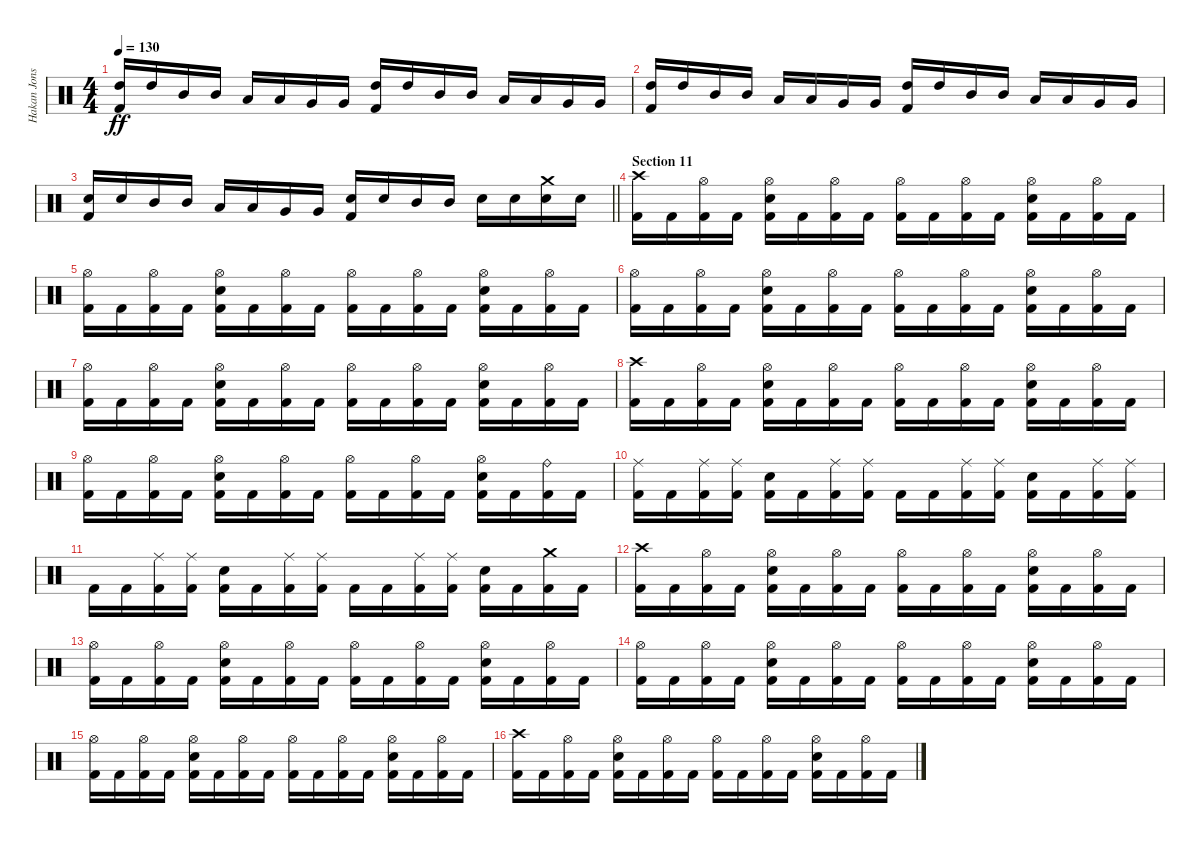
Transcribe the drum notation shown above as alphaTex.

\track ("Hakan Jonsson" "Hakan Jons") {instrument percussion}
\staff {score}
\articulation defaults
\ts (4 4)
\tempo 130
\clef neutral
\ks c
("High Tom (hit)" "Kick (hit) 2").16{dy ff} "High Tom (hit)".16 "Mid Tom (hit)".16 "Mid Tom (hit)".16 "Low Tom (hit)".16 "Low Tom (hit)".16 "Very Low Tom (hit)".16 "Very Low Tom (hit)".16 ("High Tom (hit)" "Kick (hit) 2").16 "High Tom (hit)".16 "Mid Tom (hit)".16 "Mid Tom (hit)".16 "Low Tom (hit)".16 "Low Tom (hit)".16 "Very Low Tom (hit)".16 "Very Low Tom (hit)".16 |
("High Tom (hit)" "Kick (hit) 2").16 "High Tom (hit)".16 "Mid Tom (hit)".16 "Mid Tom (hit)".16 "Low Tom (hit)".16 "Low Tom (hit)".16 "Very Low Tom (hit)".16 "Very Low Tom (hit)".16 ("High Tom (hit)" "Kick (hit) 2").16 "High Tom (hit)".16 "Mid Tom (hit)".16 "Mid Tom (hit)".16 "Low Tom (hit)".16 "Low Tom (hit)".16 "Very Low Tom (hit)".16 "Very Low Tom (hit)".16 |
\barLineRight lightlight
("Electric Snare (hit)" "Kick (hit) 2").16 "Electric Snare (hit)".16 "Mid Tom (hit)".16 "Mid Tom (hit)".16 "Low Tom (hit)".16 "Low Tom (hit)".16 "Very Low Tom (hit)".16 "Very Low Tom (hit)".16 ("Electric Snare (hit)" "Kick (hit) 2").16 "Electric Snare (hit)".16 "Mid Tom (hit)".16 "Mid Tom (hit)".16 "Electric Snare (hit)".16 "Electric Snare (hit)".16 ("Crash medium (hit)" "Electric Snare (hit)").16 "Electric Snare (hit)".16 |
\section ("" "Section 11")
("Crash high (hit)" "Kick (hit) 2").16 "Kick (hit) 2".16 ("Hi-Hat (open)" "Kick (hit) 2").16 "Kick (hit) 2".16 ("Hi-Hat (open)" "Electric Snare (hit)" "Kick (hit) 2").16 "Kick (hit) 2".16 ("Hi-Hat (open)" "Kick (hit) 2").16 "Kick (hit) 2".16 ("Hi-Hat (open)" "Kick (hit) 2").16 "Kick (hit) 2".16 ("Hi-Hat (open)" "Kick (hit) 2").16 "Kick (hit) 2".16 ("Hi-Hat (open)" "Electric Snare (hit)" "Kick (hit) 2").16 "Kick (hit) 2".16 ("Hi-Hat (open)" "Kick (hit) 2").16 "Kick (hit) 2".16 |
("Hi-Hat (open)" "Kick (hit) 2").16 "Kick (hit) 2".16 ("Hi-Hat (open)" "Kick (hit) 2").16 "Kick (hit) 2".16 ("Hi-Hat (open)" "Electric Snare (hit)" "Kick (hit) 2").16 "Kick (hit) 2".16 ("Hi-Hat (open)" "Kick (hit) 2").16 "Kick (hit) 2".16 ("Hi-Hat (open)" "Kick (hit) 2").16 "Kick (hit) 2".16 ("Hi-Hat (open)" "Kick (hit) 2").16 "Kick (hit) 2".16 ("Hi-Hat (open)" "Electric Snare (hit)" "Kick (hit) 2").16 "Kick (hit) 2".16 ("Hi-Hat (open)" "Kick (hit) 2").16 "Kick (hit) 2".16 |
("Hi-Hat (open)" "Kick (hit) 2").16 "Kick (hit) 2".16 ("Hi-Hat (open)" "Kick (hit) 2").16 "Kick (hit) 2".16 ("Hi-Hat (open)" "Electric Snare (hit)" "Kick (hit) 2").16 "Kick (hit) 2".16 ("Hi-Hat (open)" "Kick (hit) 2").16 "Kick (hit) 2".16 ("Hi-Hat (open)" "Kick (hit) 2").16 "Kick (hit) 2".16 ("Hi-Hat (open)" "Kick (hit) 2").16 "Kick (hit) 2".16 ("Hi-Hat (open)" "Electric Snare (hit)" "Kick (hit) 2").16 "Kick (hit) 2".16 ("Hi-Hat (open)" "Kick (hit) 2").16 "Kick (hit) 2".16 |
("Hi-Hat (open)" "Kick (hit) 2").16 "Kick (hit) 2".16 ("Hi-Hat (open)" "Kick (hit) 2").16 "Kick (hit) 2".16 ("Hi-Hat (open)" "Electric Snare (hit)" "Kick (hit) 2").16 "Kick (hit) 2".16 ("Hi-Hat (open)" "Kick (hit) 2").16 "Kick (hit) 2".16 ("Hi-Hat (open)" "Kick (hit) 2").16 "Kick (hit) 2".16 ("Hi-Hat (open)" "Kick (hit) 2").16 "Kick (hit) 2".16 ("Hi-Hat (open)" "Electric Snare (hit)" "Kick (hit) 2").16 "Kick (hit) 2".16 ("Hi-Hat (open)" "Kick (hit) 2").16 "Kick (hit) 2".16 |
("Crash high (hit)" "Kick (hit) 2").16 "Kick (hit) 2".16 ("Hi-Hat (open)" "Kick (hit) 2").16 "Kick (hit) 2".16 ("Hi-Hat (open)" "Electric Snare (hit)" "Kick (hit) 2").16 "Kick (hit) 2".16 ("Hi-Hat (open)" "Kick (hit) 2").16 "Kick (hit) 2".16 ("Hi-Hat (open)" "Kick (hit) 2").16 "Kick (hit) 2".16 ("Hi-Hat (open)" "Kick (hit) 2").16 "Kick (hit) 2".16 ("Hi-Hat (open)" "Electric Snare (hit)" "Kick (hit) 2").16 "Kick (hit) 2".16 ("Hi-Hat (open)" "Kick (hit) 2").16 "Kick (hit) 2".16 |
("Hi-Hat (open)" "Kick (hit) 2").16 "Kick (hit) 2".16 ("Hi-Hat (open)" "Kick (hit) 2").16 "Kick (hit) 2".16 ("Hi-Hat (open)" "Electric Snare (hit)" "Kick (hit) 2").16 "Kick (hit) 2".16 ("Hi-Hat (open)" "Kick (hit) 2").16 "Kick (hit) 2".16 ("Hi-Hat (open)" "Kick (hit) 2").16 "Kick (hit) 2".16 ("Hi-Hat (open)" "Kick (hit) 2").16 "Kick (hit) 2".16 ("Hi-Hat (open)" "Electric Snare (hit)" "Kick (hit) 2").16 "Kick (hit) 2".16 ("Ride (bell)" "Kick (hit) 2").16 "Kick (hit) 2".16 |
("Ride (middle)" "Kick (hit) 2").16 "Kick (hit) 2".16 ("Ride (middle)" "Kick (hit) 2").16 ("Ride (middle)" "Kick (hit) 2").16 ("Electric Snare (hit)" "Kick (hit) 2").16 "Kick (hit) 2".16 ("Ride (middle)" "Kick (hit) 2").16 ("Ride (middle)" "Kick (hit) 2").16 "Kick (hit) 2".16 "Kick (hit) 2".16 ("Ride (middle)" "Kick (hit) 2").16 ("Ride (middle)" "Kick (hit) 2").16 ("Electric Snare (hit)" "Kick (hit) 2").16 "Kick (hit) 2".16 ("Ride (middle)" "Kick (hit) 2").16 ("Ride (middle)" "Kick (hit) 2").16 |
"Kick (hit) 2".16 "Kick (hit) 2".16 ("Ride (middle)" "Kick (hit) 2").16 ("Ride (middle)" "Kick (hit) 2").16 ("Electric Snare (hit)" "Kick (hit) 2").16 "Kick (hit) 2".16 ("Ride (middle)" "Kick (hit) 2").16 ("Ride (middle)" "Kick (hit) 2").16 "Kick (hit) 2".16 "Kick (hit) 2".16 ("Ride (middle)" "Kick (hit) 2").16 ("Ride (middle)" "Kick (hit) 2").16 ("Electric Snare (hit)" "Kick (hit) 2").16 "Kick (hit) 2".16 ("Crash medium (hit)" "Kick (hit) 2").16 "Kick (hit) 2".16 |
("Crash high (hit)" "Kick (hit) 2").16 "Kick (hit) 2".16 ("Hi-Hat (open)" "Kick (hit) 2").16 "Kick (hit) 2".16 ("Hi-Hat (open)" "Electric Snare (hit)" "Kick (hit) 2").16 "Kick (hit) 2".16 ("Hi-Hat (open)" "Kick (hit) 2").16 "Kick (hit) 2".16 ("Hi-Hat (open)" "Kick (hit) 2").16 "Kick (hit) 2".16 ("Hi-Hat (open)" "Kick (hit) 2").16 "Kick (hit) 2".16 ("Hi-Hat (open)" "Electric Snare (hit)" "Kick (hit) 2").16 "Kick (hit) 2".16 ("Hi-Hat (open)" "Kick (hit) 2").16 "Kick (hit) 2".16 |
("Hi-Hat (open)" "Kick (hit) 2").16 "Kick (hit) 2".16 ("Hi-Hat (open)" "Kick (hit) 2").16 "Kick (hit) 2".16 ("Hi-Hat (open)" "Electric Snare (hit)" "Kick (hit) 2").16 "Kick (hit) 2".16 ("Hi-Hat (open)" "Kick (hit) 2").16 "Kick (hit) 2".16 ("Hi-Hat (open)" "Kick (hit) 2").16 "Kick (hit) 2".16 ("Hi-Hat (open)" "Kick (hit) 2").16 "Kick (hit) 2".16 ("Hi-Hat (open)" "Electric Snare (hit)" "Kick (hit) 2").16 "Kick (hit) 2".16 ("Hi-Hat (open)" "Kick (hit) 2").16 "Kick (hit) 2".16 |
("Hi-Hat (open)" "Kick (hit) 2").16 "Kick (hit) 2".16 ("Hi-Hat (open)" "Kick (hit) 2").16 "Kick (hit) 2".16 ("Hi-Hat (open)" "Electric Snare (hit)" "Kick (hit) 2").16 "Kick (hit) 2".16 ("Hi-Hat (open)" "Kick (hit) 2").16 "Kick (hit) 2".16 ("Hi-Hat (open)" "Kick (hit) 2").16 "Kick (hit) 2".16 ("Hi-Hat (open)" "Kick (hit) 2").16 "Kick (hit) 2".16 ("Hi-Hat (open)" "Electric Snare (hit)" "Kick (hit) 2").16 "Kick (hit) 2".16 ("Hi-Hat (open)" "Kick (hit) 2").16 "Kick (hit) 2".16 |
("Hi-Hat (open)" "Kick (hit) 2").16 "Kick (hit) 2".16 ("Hi-Hat (open)" "Kick (hit) 2").16 "Kick (hit) 2".16 ("Hi-Hat (open)" "Electric Snare (hit)" "Kick (hit) 2").16 "Kick (hit) 2".16 ("Hi-Hat (open)" "Kick (hit) 2").16 "Kick (hit) 2".16 ("Hi-Hat (open)" "Kick (hit) 2").16 "Kick (hit) 2".16 ("Hi-Hat (open)" "Kick (hit) 2").16 "Kick (hit) 2".16 ("Hi-Hat (open)" "Electric Snare (hit)" "Kick (hit) 2").16 "Kick (hit) 2".16 ("Hi-Hat (open)" "Kick (hit) 2").16 "Kick (hit) 2".16 |
("Crash high (hit)" "Kick (hit) 2").16 "Kick (hit) 2".16 ("Hi-Hat (open)" "Kick (hit) 2").16 "Kick (hit) 2".16 ("Hi-Hat (open)" "Electric Snare (hit)" "Kick (hit) 2").16 "Kick (hit) 2".16 ("Hi-Hat (open)" "Kick (hit) 2").16 "Kick (hit) 2".16 ("Hi-Hat (open)" "Kick (hit) 2").16 "Kick (hit) 2".16 ("Hi-Hat (open)" "Kick (hit) 2").16 "Kick (hit) 2".16 ("Hi-Hat (open)" "Electric Snare (hit)" "Kick (hit) 2").16 "Kick (hit) 2".16 ("Hi-Hat (open)" "Kick (hit) 2").16 "Kick (hit) 2".16
